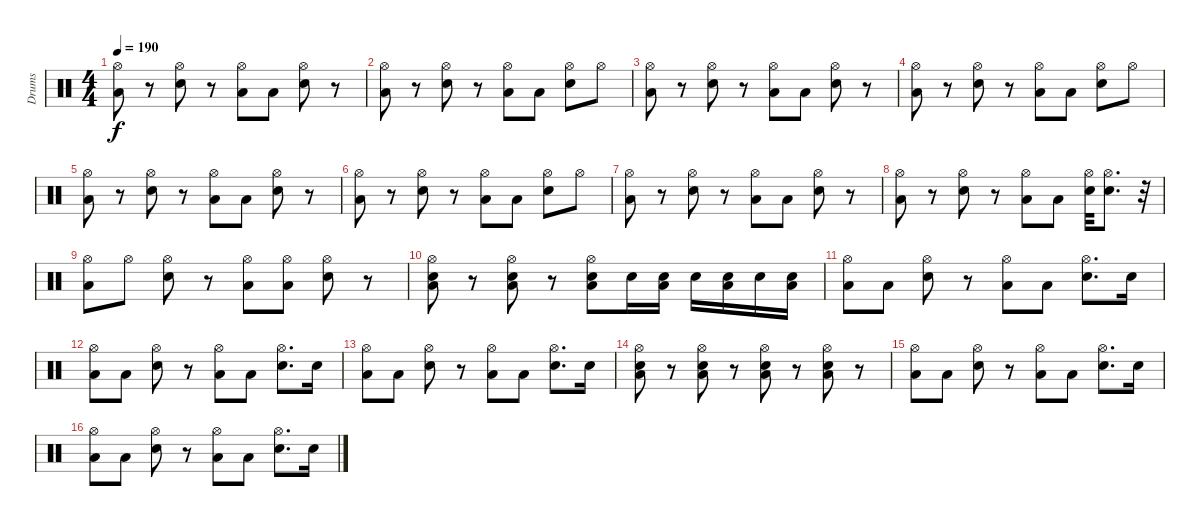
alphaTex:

\track ("Drums" "Drums") {instrument percussion}
\staff {score}
\articulation defaults
\ts (4 4)
\tempo 190
\clef neutral
\ks c
("Low Tom (hit)" "Hi-Hat (open)").8{dy f} r.8 ("Electric Snare (hit)" "Hi-Hat (open)").8 r.8 ("Low Tom (hit)" "Hi-Hat (open)").8 "Low Tom (hit)".8 ("Electric Snare (hit)" "Hi-Hat (open)").8 r.8 |
("Low Tom (hit)" "Hi-Hat (open)").8 r.8 ("Electric Snare (hit)" "Hi-Hat (open)").8 r.8 ("Low Tom (hit)" "Hi-Hat (open)").8 "Low Tom (hit)".8 ("Electric Snare (hit)" "Hi-Hat (open)").8 "Hi-Hat (open)".8 |
("Low Tom (hit)" "Hi-Hat (open)").8 r.8 ("Electric Snare (hit)" "Hi-Hat (open)").8 r.8 ("Low Tom (hit)" "Hi-Hat (open)").8 "Low Tom (hit)".8 ("Electric Snare (hit)" "Hi-Hat (open)").8 r.8 |
("Low Tom (hit)" "Hi-Hat (open)").8 r.8 ("Electric Snare (hit)" "Hi-Hat (open)").8 r.8 ("Low Tom (hit)" "Hi-Hat (open)").8 "Low Tom (hit)".8 ("Electric Snare (hit)" "Hi-Hat (open)").8 "Hi-Hat (open)".8 |
("Low Tom (hit)" "Hi-Hat (open)").8 r.8 ("Electric Snare (hit)" "Hi-Hat (open)").8 r.8 ("Low Tom (hit)" "Hi-Hat (open)").8 "Low Tom (hit)".8 ("Electric Snare (hit)" "Hi-Hat (open)").8 r.8 |
("Low Tom (hit)" "Hi-Hat (open)").8 r.8 ("Electric Snare (hit)" "Hi-Hat (open)").8 r.8 ("Low Tom (hit)" "Hi-Hat (open)").8 "Low Tom (hit)".8 ("Electric Snare (hit)" "Hi-Hat (open)").8 "Hi-Hat (open)".8 |
("Low Tom (hit)" "Hi-Hat (open)").8 r.8 ("Electric Snare (hit)" "Hi-Hat (open)").8 r.8 ("Low Tom (hit)" "Hi-Hat (open)").8 "Low Tom (hit)".8 ("Electric Snare (hit)" "Hi-Hat (open)").8 r.8 |
("Low Tom (hit)" "Hi-Hat (open)").8 r.8 ("Electric Snare (hit)" "Hi-Hat (open)").8 r.8 ("Low Tom (hit)" "Hi-Hat (open)").8 "Low Tom (hit)".8 ("Electric Snare (hit)" "Hi-Hat (open)").32 ("Electric Snare (hit)" "Hi-Hat (open)").8{d} r.32 |
("Low Tom (hit)" "Hi-Hat (open)").8 "Hi-Hat (open)".8 ("Electric Snare (hit)" "Hi-Hat (open)").8 r.8 ("Low Tom (hit)" "Hi-Hat (open)").8 ("Low Tom (hit)" "Hi-Hat (open)").8 ("Electric Snare (hit)" "Hi-Hat (open)").8 r.8 |
("Electric Snare (hit)" "Low Tom (hit)" "Hi-Hat (open)").8 r.8 ("Electric Snare (hit)" "Low Tom (hit)" "Hi-Hat (open)").8 r.8 ("Electric Snare (hit)" "Low Tom (hit)" "Hi-Hat (open)").8 "Electric Snare (hit)".16 ("Electric Snare (hit)" "Low Tom (hit)").16 "Electric Snare (hit)".16 ("Electric Snare (hit)" "Low Tom (hit)").16 "Electric Snare (hit)".16 ("Electric Snare (hit)" "Low Tom (hit)").16 |
("Low Tom (hit)" "Hi-Hat (open)").8 "Low Tom (hit)".8 ("Electric Snare (hit)" "Hi-Hat (open)").8 r.8 ("Low Tom (hit)" "Hi-Hat (open)").8 "Low Tom (hit)".8 ("Electric Snare (hit)" "Hi-Hat (open)").8{d} "Electric Snare (hit)".16 |
("Low Tom (hit)" "Hi-Hat (open)").8 "Low Tom (hit)".8 ("Electric Snare (hit)" "Hi-Hat (open)").8 r.8 ("Low Tom (hit)" "Hi-Hat (open)").8 "Low Tom (hit)".8 ("Electric Snare (hit)" "Hi-Hat (open)").8{d} "Electric Snare (hit)".16 |
("Low Tom (hit)" "Hi-Hat (open)").8 "Low Tom (hit)".8 ("Electric Snare (hit)" "Hi-Hat (open)").8 r.8 ("Low Tom (hit)" "Hi-Hat (open)").8 "Low Tom (hit)".8 ("Electric Snare (hit)" "Hi-Hat (open)").8{d} "Electric Snare (hit)".16 |
("Electric Snare (hit)" "Low Tom (hit)" "Hi-Hat (open)").8 r.8 ("Electric Snare (hit)" "Low Tom (hit)" "Hi-Hat (open)").8 r.8 ("Electric Snare (hit)" "Low Tom (hit)" "Hi-Hat (open)").8 r.8 ("Electric Snare (hit)" "Low Tom (hit)" "Hi-Hat (open)").8 r.8 |
("Low Tom (hit)" "Hi-Hat (open)").8 "Low Tom (hit)".8 ("Electric Snare (hit)" "Hi-Hat (open)").8 r.8 ("Low Tom (hit)" "Hi-Hat (open)").8 "Low Tom (hit)".8 ("Electric Snare (hit)" "Hi-Hat (open)").8{d} "Electric Snare (hit)".16 |
("Low Tom (hit)" "Hi-Hat (open)").8 "Low Tom (hit)".8 ("Electric Snare (hit)" "Hi-Hat (open)").8 r.8 ("Low Tom (hit)" "Hi-Hat (open)").8 "Low Tom (hit)".8 ("Electric Snare (hit)" "Hi-Hat (open)").8{d} "Electric Snare (hit)".16
